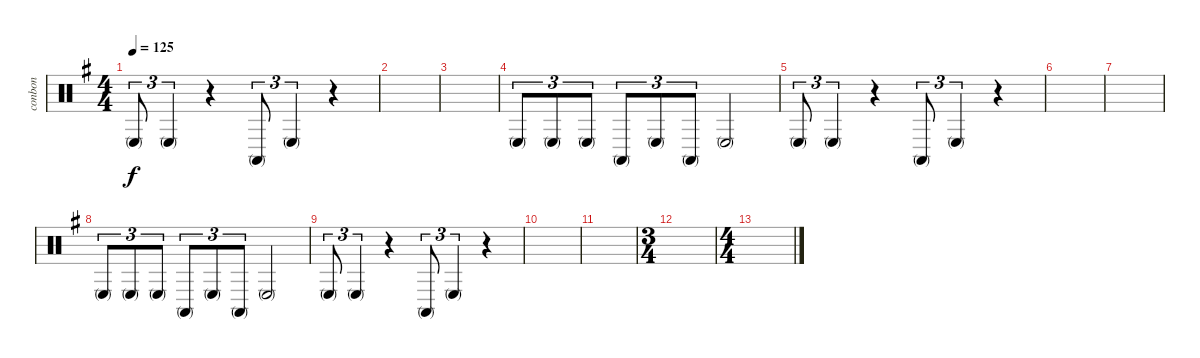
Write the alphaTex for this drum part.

\defaultSystemsLayout 4
\bracketExtendMode groupsimilarinstruments
\otherSystemsTrackNameOrientation horizontal
\track ("Bongos N Congas" "conbon") {instrument percussion}
\staff {score}
\articulation defaults
\ts (4 4)
\tempo 125
\clef neutral
\scale
0.333333
\ks g "Conga low (mute)"{acc forcenatural}.8{tu (3 2) dy f beam Up} "Conga low (mute)"{acc forcenatural}.4{tu (3 2) beam Up}
r.4{beam Up} "Conga high (mute)"{acc forcenatural}.8{tu (3 2) beam Up} "Conga low (mute)"{acc forcenatural}.4{tu (3 2) beam Up} r.4{beam Up} |
\scale
0.333333 |
\scale
0.333333 |
\scale
0.333333 "Conga low (mute)"{acc forcenatural}.8{tu (3 2) beam Up} "Conga low (mute)"{acc forcenatural}.8{tu (3 2) beam Up} "Conga low (mute)"{acc forcenatural}.8{tu (3 2) beam Up} "Conga high (mute)"{acc forcenatural}.8{tu (3 2) beam Up} "Conga low (mute)"{acc forcenatural}.8{tu (3 2) beam Up} "Conga high (mute)"{acc forcenatural}.8{tu (3 2) beam Up} "Conga low (mute)"{acc forcenatural}.2{beam Up} |
\scale
0.333333 "Conga low (mute)"{acc forcenatural}.8{tu (3 2) beam Up} "Conga low (mute)"{acc forcenatural}.4{tu (3 2) beam Up} r.4{beam Up} "Conga high (mute)"{acc forcenatural}.8{tu (3 2) beam Up} "Conga low (mute)"{acc forcenatural}.4{tu (3 2) beam Up} r.4{beam Up} |
\scale
0.333333 |
\scale
0.333333 |
\scale
0.333333 "Conga low (mute)"{acc forcenatural}.8{tu (3 2) beam Up} "Conga low (mute)"{acc forcenatural}.8{tu (3 2) beam Up} "Conga low (mute)"{acc forcenatural}.8{tu (3 2) beam Up} "Conga high (mute)"{acc forcenatural}.8{tu (3 2) beam Up} "Conga low (mute)"{acc forcenatural}.8{tu (3 2) beam Up} "Conga high (mute)"{acc forcenatural}.8{tu (3 2) beam Up} "Conga low (mute)"{acc forcenatural}.2{beam Up} |
\scale
0.333333 "Conga low (mute)"{acc forcenatural}.8{tu (3 2) beam Up} "Conga low (mute)"{acc forcenatural}.4{tu (3 2) beam Up} r.4{beam Up} "Conga high (mute)"{acc forcenatural}.8{tu (3 2) beam Up} "Conga low (mute)"{acc forcenatural}.4{tu (3 2) beam Up} r.4{beam Up} |
\scale
0.262911 |
\scale
0.262911 |
\ts (3 4)
\scale
0.474178 |
\ts (4 4)
\scale
0.474178 |
\scale
0.262911 |
\scale
0.262911 |
\scale
0.333333
